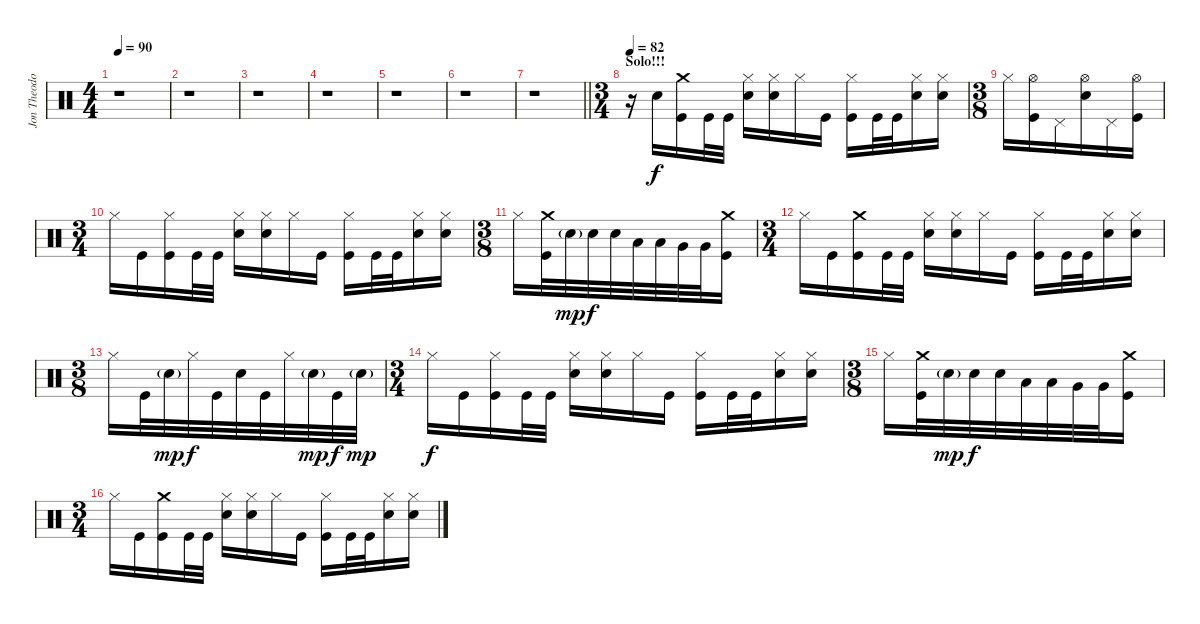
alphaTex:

\track ("Jon Theodore" "Jon Theodo") {instrument percussion}
\staff {score}
\articulation defaults
\ts (4 4)
\tempo 90
\clef neutral
\ks c
r.1{dy f} |
r.1 |
r.1 |
r.1 |
r.1 |
r.1 |
\barLineRight lightlight
r.1 |
\ts (3 4)
\section ("" "Solo!!!")
\tempo 82
r.16 "Snare (hit) 2".16 ("Crash medium (hit)" "Kick (hit)").16 "Kick (hit)".32 "Kick (hit)".32 ("Hi-Hat (closed)" "Snare (hit) 2").16 ("Hi-Hat (closed)" "Snare (hit) 2").16 "Hi-Hat (closed)".16 "Kick (hit)".16 ("Hi-Hat (closed)" "Kick (hit)").16 "Kick (hit)".32 "Kick (hit)".32 ("Hi-Hat (closed)" "Snare (hit) 2").16 ("Hi-Hat (closed)" "Snare (hit) 2").16 |
\ts (3 8)
"Hi-Hat (closed)".16 ("Hi-Hat (open)" "Kick (hit)").16 "Pedal Hi-Hat (hit)".16 ("Hi-Hat (open)" "Snare (hit) 2").16 "Pedal Hi-Hat (hit)".16 ("Hi-Hat (open)" "Kick (hit)").16 |
\ts (3 4)
"Hi-Hat (closed)".16 "Kick (hit)".16 ("Hi-Hat (closed)" "Kick (hit)").16 "Kick (hit)".32 "Kick (hit)".32 ("Hi-Hat (closed)" "Snare (hit) 2").16 ("Hi-Hat (closed)" "Snare (hit) 2").16 "Hi-Hat (closed)".16 "Kick (hit)".16 ("Hi-Hat (closed)" "Kick (hit)").16 "Kick (hit)".32 "Kick (hit)".32 ("Hi-Hat (closed)" "Snare (hit) 2").16 ("Hi-Hat (closed)" "Snare (hit) 2").16 |
\ts (3 8)
"Hi-Hat (closed)".16 ("Crash medium (hit)" "Kick (hit)").32 "Snare (hit) 2"{g}.32{dy mp} "Snare (hit) 2".32{dy f} "Snare (hit) 2".32 "Low Tom (hit)".32 "Low Tom (hit)".32 "Very Low Tom (hit)".32 "Very Low Tom (hit)".32 ("Crash medium (hit)" "Kick (hit)").16 |
\ts (3 4)
"Hi-Hat (closed)".16 "Kick (hit)".16 ("Crash medium (hit)" "Kick (hit)").16 "Kick (hit)".32 "Kick (hit)".32 ("Hi-Hat (closed)" "Snare (hit) 2").16 ("Hi-Hat (closed)" "Snare (hit) 2").16 "Hi-Hat (closed)".16 "Kick (hit)".16 ("Hi-Hat (closed)" "Kick (hit)").16 "Kick (hit)".32 "Kick (hit)".32 ("Hi-Hat (closed)" "Snare (hit) 2").16 ("Hi-Hat (closed)" "Snare (hit) 2").16 |
\ts (3 8)
"Hi-Hat (closed)".16 "Kick (hit)".32 "Snare (hit) 2"{g}.32{dy mp} "Hi-Hat (closed)".32{dy f} "Kick (hit)".32 "Snare (hit) 2".32 "Kick (hit)".32 "Hi-Hat (closed)".32 "Snare (hit) 2"{g}.32{dy mp} "Kick (hit)".32{dy f} "Snare (hit) 2"{g}.32{dy mp} |
\ts (3 4)
"Hi-Hat (closed)".16{dy f} "Kick (hit)".16 ("Hi-Hat (closed)" "Kick (hit)").16 "Kick (hit)".32 "Kick (hit)".32 ("Hi-Hat (closed)" "Snare (hit) 2").16 ("Hi-Hat (closed)" "Snare (hit) 2").16 "Hi-Hat (closed)".16 "Kick (hit)".16 ("Hi-Hat (closed)" "Kick (hit)").16 "Kick (hit)".32 "Kick (hit)".32 ("Hi-Hat (closed)" "Snare (hit) 2").16 ("Hi-Hat (closed)" "Snare (hit) 2").16 |
\ts (3 8)
"Hi-Hat (closed)".16 ("Crash medium (hit)" "Kick (hit)").32 "Snare (hit) 2"{g}.32{dy mp} "Snare (hit) 2".32{dy f} "Snare (hit) 2".32 "Low Tom (hit)".32 "Low Tom (hit)".32 "Very Low Tom (hit)".32 "Very Low Tom (hit)".32 ("Crash medium (hit)" "Kick (hit)").16 |
\ts (3 4)
"Hi-Hat (closed)".16 "Kick (hit)".16 ("Crash medium (hit)" "Kick (hit)").16 "Kick (hit)".32 "Kick (hit)".32 ("Hi-Hat (closed)" "Snare (hit) 2").16 ("Hi-Hat (closed)" "Snare (hit) 2").16 "Hi-Hat (closed)".16 "Kick (hit)".16 ("Hi-Hat (closed)" "Kick (hit)").16 "Kick (hit)".32 "Kick (hit)".32 ("Hi-Hat (closed)" "Snare (hit) 2").16 ("Hi-Hat (closed)" "Snare (hit) 2").16
